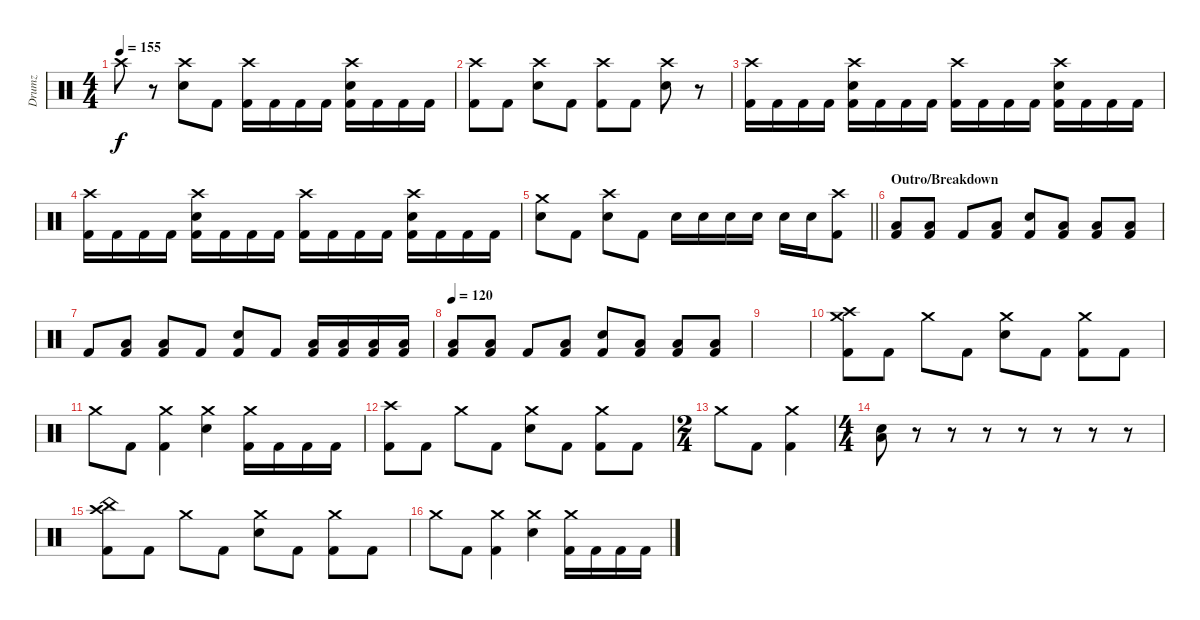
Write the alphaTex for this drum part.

\track ("Drumz" "Drumz") {instrument percussion}
\staff {score}
\articulation defaults
\ts (4 4)
\tempo 155
\clef neutral
\ks c "Crash high (hit)".8{dy f}
r.8 ("Electric Snare (hit)" "Crash high (hit)").8 "Kick (hit) 2".8 ("Kick (hit) 2" "Crash high (hit)").16 "Kick (hit) 2".16 "Kick (hit) 2".16 "Kick (hit) 2".16 ("Electric Snare (hit)" "Crash high (hit)" "Kick (hit) 2").16 "Kick (hit) 2".16 "Kick (hit) 2".16 "Kick (hit) 2".16 |
("Kick (hit) 2" "Crash high (hit)").8 "Kick (hit) 2".8 ("Electric Snare (hit)" "Crash high (hit)").8 "Kick (hit) 2".8 ("Kick (hit) 2" "Crash high (hit)").8 "Kick (hit) 2".8 ("Electric Snare (hit)" "Crash high (hit)").8 r.8 |
("Kick (hit) 2" "Crash high (hit)").16 "Kick (hit) 2".16 "Kick (hit) 2".16 "Kick (hit) 2".16 ("Electric Snare (hit)" "Crash high (hit)" "Kick (hit) 2").16 "Kick (hit) 2".16 "Kick (hit) 2".16 "Kick (hit) 2".16 ("Kick (hit) 2" "Crash high (hit)").16 "Kick (hit) 2".16 "Kick (hit) 2".16 "Kick (hit) 2".16 ("Electric Snare (hit)" "Crash high (hit)" "Kick (hit) 2").16 "Kick (hit) 2".16 "Kick (hit) 2".16 "Kick (hit) 2".16 |
("Kick (hit) 2" "Crash high (hit)").16 "Kick (hit) 2".16 "Kick (hit) 2".16 "Kick (hit) 2".16 ("Electric Snare (hit)" "Crash high (hit)" "Kick (hit) 2").16 "Kick (hit) 2".16 "Kick (hit) 2".16 "Kick (hit) 2".16 ("Kick (hit) 2" "Crash high (hit)").16 "Kick (hit) 2".16 "Kick (hit) 2".16 "Kick (hit) 2".16 ("Electric Snare (hit)" "Crash high (hit)" "Kick (hit) 2").16 "Kick (hit) 2".16 "Kick (hit) 2".16 "Kick (hit) 2".16 |
\barLineRight lightlight
("Electric Snare (hit)" "Crash medium (hit)").8 "Kick (hit) 2".8 ("Electric Snare (hit)" "Crash high (hit)").8 "Kick (hit) 2".8 "Electric Snare (hit)".16 "Electric Snare (hit)".16 "Electric Snare (hit)".16 "Electric Snare (hit)".16 "Electric Snare (hit)".16 "Electric Snare (hit)".16 ("Crash high (hit)" "Kick (hit) 2").8 |
\section ("" "Outro/Breakdown")
("Kick (hit) 2" "Low Floor Tom (hit)").8 ("Kick (hit) 2" "Low Floor Tom (hit)").8 "Kick (hit) 2".8 ("Kick (hit) 2" "Low Floor Tom (hit)").8 ("Kick (hit) 2" "Electric Snare (hit)").8 ("Kick (hit) 2" "Low Floor Tom (hit)").8 ("Kick (hit) 2" "Low Floor Tom (hit)").8 ("Kick (hit) 2" "Low Floor Tom (hit)").8 |
"Kick (hit) 2".8 ("Kick (hit) 2" "Low Floor Tom (hit)").8 ("Kick (hit) 2" "Low Floor Tom (hit)").8 "Kick (hit) 2".8 ("Kick (hit) 2" "Electric Snare (hit)").8 "Kick (hit) 2".8 ("Low Floor Tom (hit)" "Kick (hit) 2").16 ("Kick (hit) 2" "Low Floor Tom (hit)").16 ("Kick (hit) 2" "Low Floor Tom (hit)").16 ("Kick (hit) 2" "Low Floor Tom (hit)").16 |
\tempo 120
("Kick (hit) 2" "Low Floor Tom (hit)").8 ("Kick (hit) 2" "Low Floor Tom (hit)").8 "Kick (hit) 2".8 ("Kick (hit) 2" "Low Floor Tom (hit)").8 ("Kick (hit) 2" "Electric Snare (hit)").8 ("Kick (hit) 2" "Low Floor Tom (hit)").8 ("Kick (hit) 2" "Low Floor Tom (hit)").8 ("Kick (hit) 2" "Low Floor Tom (hit)").8 |
|
("Crash medium (hit)" "Kick (hit) 2" "Crash high (hit)").8 "Kick (hit) 2".8 "Crash medium (hit)".8 "Kick (hit) 2".8 ("Crash medium (hit)" "Electric Snare (hit)").8 "Kick (hit) 2".8 ("Kick (hit) 2" "Crash medium (hit)").8 "Kick (hit) 2".8 |
"Crash medium (hit)".8 "Kick (hit) 2".8 ("Kick (hit) 2" "Crash medium (hit)").4 ("Crash medium (hit)" "Electric Snare (hit)").4 ("Crash medium (hit)" "Kick (hit) 2").16 "Kick (hit) 2".16 "Kick (hit) 2".16 "Kick (hit) 2".16 |
("Crash high (hit)" "Kick (hit) 2").8 "Kick (hit) 2".8 "Crash medium (hit)".8 "Kick (hit) 2".8 ("Crash medium (hit)" "Electric Snare (hit)").8 "Kick (hit) 2".8 ("Kick (hit) 2" "Crash medium (hit)").8 "Kick (hit) 2".8 |
\ts (2 4)
"Crash medium (hit)".8 "Kick (hit) 2".8 ("Kick (hit) 2" "Crash medium (hit)").4 |
\ts (4 4)
("Low Floor Tom (hit)" "Electric Snare (hit)").8 r.8 r.8 r.8 r.8 r.8 r.8 r.8 |
("Crash high (hit)" "Kick (hit) 2" "China (hit)").8 "Kick (hit) 2".8 "Crash medium (hit)".8 "Kick (hit) 2".8 ("Crash medium (hit)" "Electric Snare (hit)").8 "Kick (hit) 2".8 ("Kick (hit) 2" "Crash medium (hit)").8 "Kick (hit) 2".8 |
"Crash medium (hit)".8 "Kick (hit) 2".8 ("Kick (hit) 2" "Crash medium (hit)").4 ("Crash medium (hit)" "Electric Snare (hit)").4 ("Crash medium (hit)" "Kick (hit) 2").16 "Kick (hit) 2".16 "Kick (hit) 2".16 "Kick (hit) 2".16
